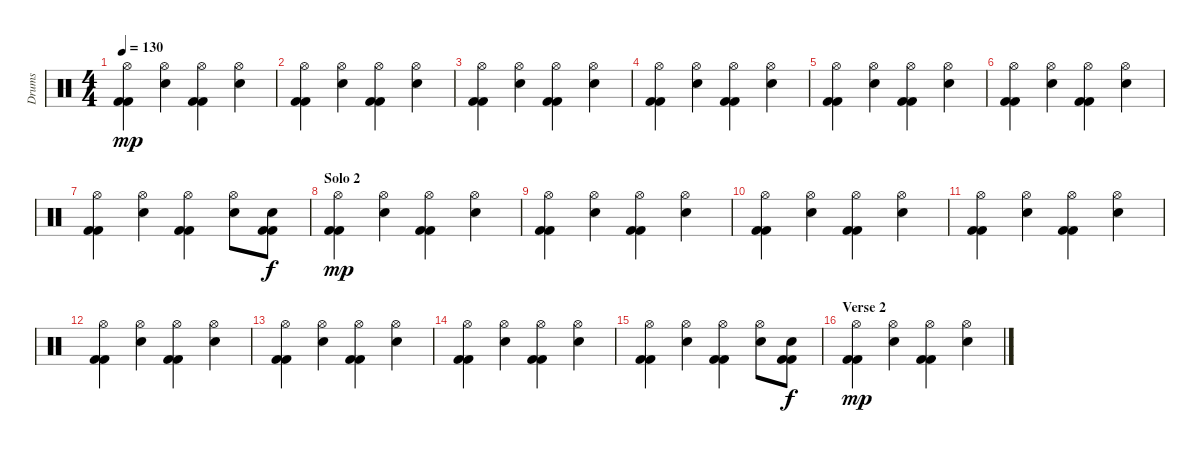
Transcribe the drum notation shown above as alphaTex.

\track ("Drums" "Drums") {instrument percussion}
\staff {score}
\articulation defaults
\ts (4 4)
\tempo 130
\clef neutral
\ks c
("Hi-Hat (open)" "Kick (hit) 2" "Kick (hit) 2").4{dy mp} ("Hi-Hat (open)" "Snare (hit) 2").4 ("Hi-Hat (open)" "Kick (hit) 2" "Kick (hit) 2").4 ("Hi-Hat (open)" "Snare (hit) 2").4 |
("Hi-Hat (open)" "Kick (hit) 2" "Kick (hit) 2").4 ("Hi-Hat (open)" "Snare (hit) 2").4 ("Hi-Hat (open)" "Kick (hit) 2" "Kick (hit) 2").4 ("Hi-Hat (open)" "Snare (hit) 2").4 |
("Hi-Hat (open)" "Kick (hit) 2" "Kick (hit) 2").4 ("Hi-Hat (open)" "Snare (hit) 2").4 ("Hi-Hat (open)" "Kick (hit) 2" "Kick (hit) 2").4 ("Hi-Hat (open)" "Snare (hit) 2").4 |
("Hi-Hat (open)" "Kick (hit) 2" "Kick (hit) 2").4 ("Hi-Hat (open)" "Snare (hit) 2").4 ("Hi-Hat (open)" "Kick (hit) 2" "Kick (hit) 2").4 ("Hi-Hat (open)" "Snare (hit) 2").4 |
("Hi-Hat (open)" "Kick (hit) 2" "Kick (hit) 2").4 ("Hi-Hat (open)" "Snare (hit) 2").4 ("Hi-Hat (open)" "Kick (hit) 2" "Kick (hit) 2").4 ("Hi-Hat (open)" "Snare (hit) 2").4 |
("Hi-Hat (open)" "Kick (hit) 2" "Kick (hit) 2").4 ("Hi-Hat (open)" "Snare (hit) 2").4 ("Hi-Hat (open)" "Kick (hit) 2" "Kick (hit) 2").4 ("Hi-Hat (open)" "Snare (hit) 2").4 |
("Hi-Hat (open)" "Kick (hit) 2" "Kick (hit) 2").4 ("Hi-Hat (open)" "Snare (hit) 2").4 ("Hi-Hat (open)" "Kick (hit) 2" "Kick (hit) 2").4 ("Hi-Hat (open)" "Snare (hit) 2").8 ("Snare (hit) 2" "Kick (hit) 2" "Kick (hit) 2").8{dy f} |
\section ("" "Solo 2")
("Hi-Hat (open)" "Kick (hit) 2" "Kick (hit) 2").4{dy mp} ("Hi-Hat (open)" "Snare (hit) 2").4 ("Hi-Hat (open)" "Kick (hit) 2" "Kick (hit) 2").4 ("Hi-Hat (open)" "Snare (hit) 2").4 |
("Hi-Hat (open)" "Kick (hit) 2" "Kick (hit) 2").4 ("Hi-Hat (open)" "Snare (hit) 2").4 ("Hi-Hat (open)" "Kick (hit) 2" "Kick (hit) 2").4 ("Hi-Hat (open)" "Snare (hit) 2").4 |
("Hi-Hat (open)" "Kick (hit) 2" "Kick (hit) 2").4 ("Hi-Hat (open)" "Snare (hit) 2").4 ("Hi-Hat (open)" "Kick (hit) 2" "Kick (hit) 2").4 ("Hi-Hat (open)" "Snare (hit) 2").4 |
("Hi-Hat (open)" "Kick (hit) 2" "Kick (hit) 2").4 ("Hi-Hat (open)" "Snare (hit) 2").4 ("Hi-Hat (open)" "Kick (hit) 2" "Kick (hit) 2").4 ("Hi-Hat (open)" "Snare (hit) 2").4 |
("Hi-Hat (open)" "Kick (hit) 2" "Kick (hit) 2").4 ("Hi-Hat (open)" "Snare (hit) 2").4 ("Hi-Hat (open)" "Kick (hit) 2" "Kick (hit) 2").4 ("Hi-Hat (open)" "Snare (hit) 2").4 |
("Hi-Hat (open)" "Kick (hit) 2" "Kick (hit) 2").4 ("Hi-Hat (open)" "Snare (hit) 2").4 ("Hi-Hat (open)" "Kick (hit) 2" "Kick (hit) 2").4 ("Hi-Hat (open)" "Snare (hit) 2").4 |
("Hi-Hat (open)" "Kick (hit) 2" "Kick (hit) 2").4 ("Hi-Hat (open)" "Snare (hit) 2").4 ("Hi-Hat (open)" "Kick (hit) 2" "Kick (hit) 2").4 ("Hi-Hat (open)" "Snare (hit) 2").4 |
("Hi-Hat (open)" "Kick (hit) 2" "Kick (hit) 2").4 ("Hi-Hat (open)" "Snare (hit) 2").4 ("Hi-Hat (open)" "Kick (hit) 2" "Kick (hit) 2").4 ("Hi-Hat (open)" "Snare (hit) 2").8 ("Snare (hit) 2" "Kick (hit) 2" "Kick (hit) 2").8{dy f} |
\section ("" "Verse 2")
("Hi-Hat (open)" "Kick (hit) 2" "Kick (hit) 2").4{dy mp} ("Hi-Hat (open)" "Snare (hit) 2").4 ("Hi-Hat (open)" "Kick (hit) 2" "Kick (hit) 2").4 ("Hi-Hat (open)" "Snare (hit) 2").4
